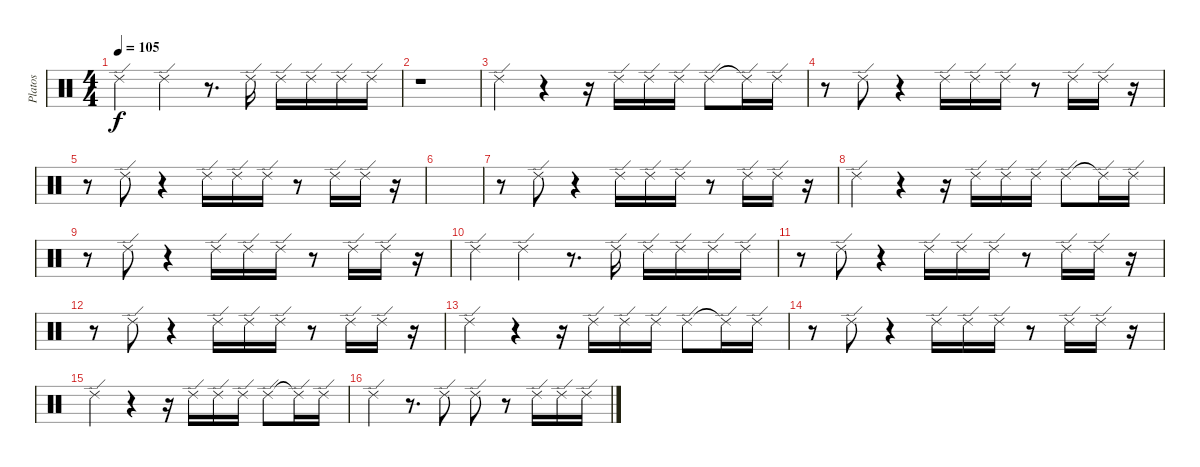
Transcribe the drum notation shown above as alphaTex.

\track ("Platos" "Platos") {instrument percussion}
\staff {score}
\articulation defaults
\ts (4 4)
\tempo 105
\clef neutral
\ks c "Ride (edge) 2".4{dy f} "Ride (edge) 2".4
r.8{d} "Ride (edge) 2".16 "Ride (edge) 2".16 "Ride (edge) 2".16 "Ride (edge) 2".16 "Ride (edge) 2".16 |
r.1 |
"Ride (edge) 2".4 r.4 r.16 "Ride (edge) 2".16 "Ride (edge) 2".16 "Ride (edge) 2".16 "Ride (edge) 2".8 "Ride (edge) 2"{t}.16 "Ride (edge) 2".16 |
r.8 "Ride (edge) 2".8 r.4 "Ride (edge) 2".16 "Ride (edge) 2".16 "Ride (edge) 2".16 r.8 "Ride (edge) 2".16 "Ride (edge) 2".16 r.16 |
r.8 "Ride (edge) 2".8 r.4 "Ride (edge) 2".16 "Ride (edge) 2".16 "Ride (edge) 2".16 r.8 "Ride (edge) 2".16 "Ride (edge) 2".16 r.16 |
|
r.8 "Ride (edge) 2".8 r.4 "Ride (edge) 2".16 "Ride (edge) 2".16 "Ride (edge) 2".16 r.8 "Ride (edge) 2".16 "Ride (edge) 2".16 r.16 |
"Ride (edge) 2".4 r.4 r.16 "Ride (edge) 2".16 "Ride (edge) 2".16 "Ride (edge) 2".16 "Ride (edge) 2".8 "Ride (edge) 2"{t}.16 "Ride (edge) 2".16 |
r.8 "Ride (edge) 2".8 r.4 "Ride (edge) 2".16 "Ride (edge) 2".16 "Ride (edge) 2".16 r.8 "Ride (edge) 2".16 "Ride (edge) 2".16 r.16 |
"Ride (edge) 2".4 "Ride (edge) 2".4 r.8{d} "Ride (edge) 2".16 "Ride (edge) 2".16 "Ride (edge) 2".16 "Ride (edge) 2".16 "Ride (edge) 2".16 |
r.8 "Ride (edge) 2".8 r.4 "Ride (edge) 2".16 "Ride (edge) 2".16 "Ride (edge) 2".16 r.8 "Ride (edge) 2".16 "Ride (edge) 2".16 r.16 |
r.8 "Ride (edge) 2".8 r.4 "Ride (edge) 2".16 "Ride (edge) 2".16 "Ride (edge) 2".16 r.8 "Ride (edge) 2".16 "Ride (edge) 2".16 r.16 |
"Ride (edge) 2".4 r.4 r.16 "Ride (edge) 2".16 "Ride (edge) 2".16 "Ride (edge) 2".16 "Ride (edge) 2".8 "Ride (edge) 2"{t}.16 "Ride (edge) 2".16 |
r.8 "Ride (edge) 2".8 r.4 "Ride (edge) 2".16 "Ride (edge) 2".16 "Ride (edge) 2".16 r.8 "Ride (edge) 2".16 "Ride (edge) 2".16 r.16 |
"Ride (edge) 2".4 r.4 r.16 "Ride (edge) 2".16 "Ride (edge) 2".16 "Ride (edge) 2".16 "Ride (edge) 2".8 "Ride (edge) 2"{t}.16 "Ride (edge) 2".16 |
"Ride (edge) 2".4 r.8{d} "Ride (edge) 2".8 "Ride (edge) 2".8 r.8 "Ride (edge) 2".16 "Ride (edge) 2".16 "Ride (edge) 2".16
